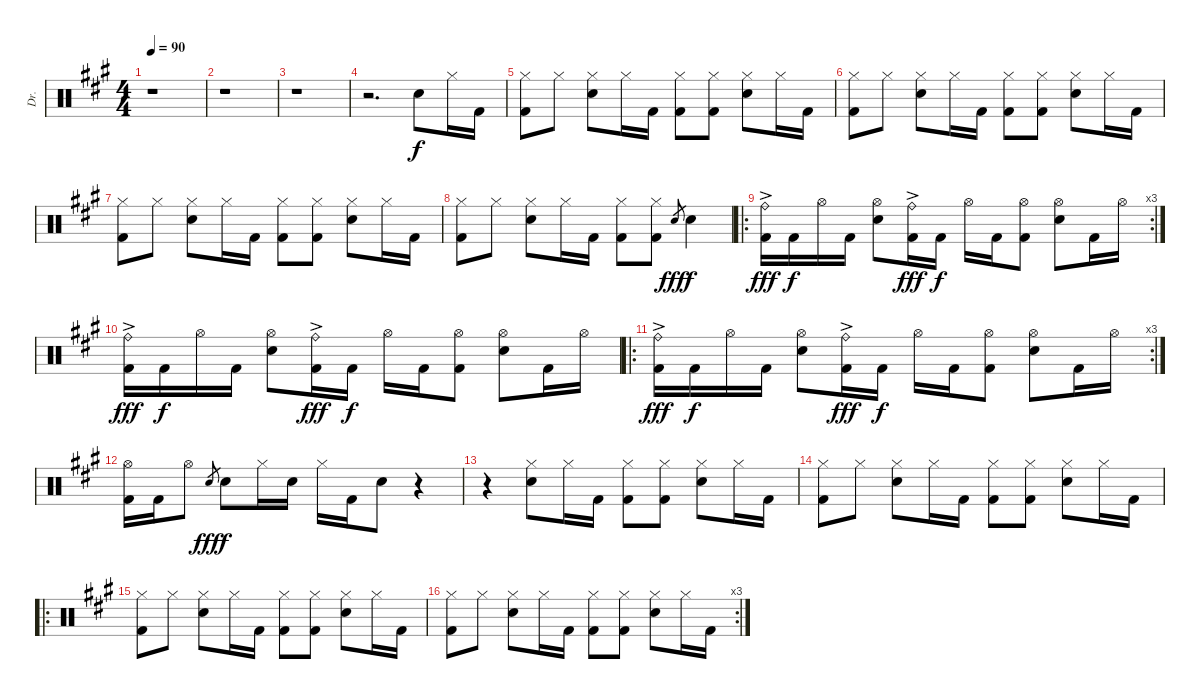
\track ("Dr." "Dr.") {instrument percussion}
\staff {score}
\articulation defaults
\ts (4 4)
\tempo 90
\clef neutral
\ks a
r.1{dy f} |
r.1 |
r.1 |
r.2{d} "Electric Snare (hit)".8 "Hi-Hat (closed)".16 "Kick (hit) 2".16 |
("Hi-Hat (closed)" "Kick (hit) 2").8 "Hi-Hat (closed)".8 ("Hi-Hat (closed)" "Electric Snare (hit)").8 "Hi-Hat (closed)".16 "Kick (hit) 2".16 ("Hi-Hat (closed)" "Kick (hit) 2").8 ("Hi-Hat (closed)" "Kick (hit) 2").8 ("Hi-Hat (closed)" "Electric Snare (hit)").8 "Hi-Hat (closed)".16 "Kick (hit) 2".16 |
("Hi-Hat (closed)" "Kick (hit) 2").8 "Hi-Hat (closed)".8 ("Hi-Hat (closed)" "Electric Snare (hit)").8 "Hi-Hat (closed)".16 "Kick (hit) 2".16 ("Hi-Hat (closed)" "Kick (hit) 2").8 ("Hi-Hat (closed)" "Kick (hit) 2").8 ("Hi-Hat (closed)" "Electric Snare (hit)").8 "Hi-Hat (closed)".16 "Kick (hit) 2".16 |
("Hi-Hat (closed)" "Kick (hit) 2").8 "Hi-Hat (closed)".8 ("Hi-Hat (closed)" "Electric Snare (hit)").8 "Hi-Hat (closed)".16 "Kick (hit) 2".16 ("Hi-Hat (closed)" "Kick (hit) 2").8 ("Hi-Hat (closed)" "Kick (hit) 2").8 ("Hi-Hat (closed)" "Electric Snare (hit)").8 "Hi-Hat (closed)".16 "Kick (hit) 2".16 |
("Hi-Hat (closed)" "Kick (hit) 2").8 "Hi-Hat (closed)".8 ("Hi-Hat (closed)" "Electric Snare (hit)").8 "Hi-Hat (closed)".16 "Kick (hit) 2".16 ("Hi-Hat (closed)" "Kick (hit) 2").8 ("Hi-Hat (closed)" "Kick (hit) 2").8 "Electric Snare (hit)".8{gr dy fff} "Electric Snare (hit)".4{dy f} |
\ro
\rc 3
("Ride (bell)"{ac} "Kick (hit) 2"{ac}).16{dy fff} "Kick (hit) 2".16{dy f} "Hi-Hat (open)".16 "Kick (hit) 2".16 ("Hi-Hat (open)" "Electric Snare (hit)").8 ("Ride (bell)"{ac} "Kick (hit) 2"{ac}).16{dy fff} "Kick (hit) 2".16{dy f} "Hi-Hat (open)".16 "Kick (hit) 2".16 ("Hi-Hat (open)" "Kick (hit) 2").8 ("Hi-Hat (open)" "Electric Snare (hit)").8 "Kick (hit) 2".16 "Hi-Hat (open)".16 |
("Ride (bell)"{ac} "Kick (hit) 2"{ac}).16{dy fff} "Kick (hit) 2".16{dy f} "Hi-Hat (open)".16 "Kick (hit) 2".16 ("Hi-Hat (open)" "Electric Snare (hit)").8 ("Ride (bell)"{ac} "Kick (hit) 2"{ac}).16{dy fff} "Kick (hit) 2".16{dy f} "Hi-Hat (open)".16 "Kick (hit) 2".16 ("Hi-Hat (open)" "Kick (hit) 2").8 ("Hi-Hat (open)" "Electric Snare (hit)").8 "Kick (hit) 2".16 "Hi-Hat (open)".16 |
\ro
\rc 3
("Ride (bell)"{ac} "Kick (hit) 2"{ac}).16{dy fff} "Kick (hit) 2".16{dy f} "Hi-Hat (open)".16 "Kick (hit) 2".16 ("Hi-Hat (open)" "Electric Snare (hit)").8 ("Ride (bell)"{ac} "Kick (hit) 2"{ac}).16{dy fff} "Kick (hit) 2".16{dy f} "Hi-Hat (open)".16 "Kick (hit) 2".16 ("Hi-Hat (open)" "Kick (hit) 2").8 ("Hi-Hat (open)" "Electric Snare (hit)").8 "Kick (hit) 2".16 "Hi-Hat (open)".16 |
("Hi-Hat (open)" "Kick (hit) 2").16 "Kick (hit) 2".16 "Hi-Hat (open)".8 "Electric Snare (hit)".8{gr dy fff} "Electric Snare (hit)".8{dy f} "Hi-Hat (closed)".16 "Electric Snare (hit)".16 "Hi-Hat (closed)".16 "Kick (hit) 2".16 "Electric Snare (hit)".8 r.4 |
r.4 ("Hi-Hat (closed)" "Electric Snare (hit)").8 "Hi-Hat (closed)".16 "Kick (hit) 2".16 ("Hi-Hat (closed)" "Kick (hit) 2").8 ("Hi-Hat (closed)" "Kick (hit) 2").8 ("Hi-Hat (closed)" "Electric Snare (hit)").8 "Hi-Hat (closed)".16 "Kick (hit) 2".16 |
("Hi-Hat (closed)" "Kick (hit) 2").8 "Hi-Hat (closed)".8 ("Hi-Hat (closed)" "Electric Snare (hit)").8 "Hi-Hat (closed)".16 "Kick (hit) 2".16 ("Hi-Hat (closed)" "Kick (hit) 2").8 ("Hi-Hat (closed)" "Kick (hit) 2").8 ("Hi-Hat (closed)" "Electric Snare (hit)").8 "Hi-Hat (closed)".16 "Kick (hit) 2".16 |
\ro
("Hi-Hat (closed)" "Kick (hit) 2").8 "Hi-Hat (closed)".8 ("Hi-Hat (closed)" "Electric Snare (hit)").8 "Hi-Hat (closed)".16 "Kick (hit) 2".16 ("Hi-Hat (closed)" "Kick (hit) 2").8 ("Hi-Hat (closed)" "Kick (hit) 2").8 ("Hi-Hat (closed)" "Electric Snare (hit)").8 "Hi-Hat (closed)".16 "Kick (hit) 2".16 |
\rc 3
("Hi-Hat (closed)" "Kick (hit) 2").8 "Hi-Hat (closed)".8 ("Hi-Hat (closed)" "Electric Snare (hit)").8 "Hi-Hat (closed)".16 "Kick (hit) 2".16 ("Hi-Hat (closed)" "Kick (hit) 2").8 ("Hi-Hat (closed)" "Kick (hit) 2").8 ("Hi-Hat (closed)" "Electric Snare (hit)").8 "Hi-Hat (closed)".16 "Kick (hit) 2".16
